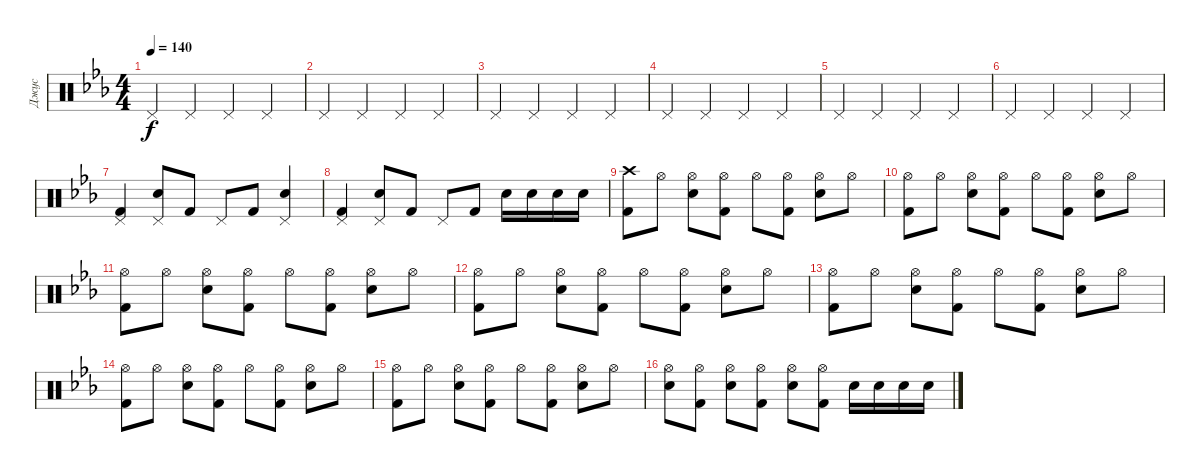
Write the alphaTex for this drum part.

\track ("Джус" "Джус") {instrument percussion}
\staff {score}
\articulation defaults
\ts (4 4)
\tempo 140
\clef neutral
\ks eb "Pedal Hi-Hat (hit)".4{dy f volume 8} "Pedal Hi-Hat (hit)".4 "Pedal Hi-Hat (hit)".4 "Pedal Hi-Hat (hit)".4
|
"Pedal Hi-Hat (hit)".4 "Pedal Hi-Hat (hit)".4 "Pedal Hi-Hat (hit)".4 "Pedal Hi-Hat (hit)".4 |
"Pedal Hi-Hat (hit)".4 "Pedal Hi-Hat (hit)".4 "Pedal Hi-Hat (hit)".4 "Pedal Hi-Hat (hit)".4 |
"Pedal Hi-Hat (hit)".4 "Pedal Hi-Hat (hit)".4 "Pedal Hi-Hat (hit)".4 "Pedal Hi-Hat (hit)".4 |
"Pedal Hi-Hat (hit)".4 "Pedal Hi-Hat (hit)".4 "Pedal Hi-Hat (hit)".4 "Pedal Hi-Hat (hit)".4 |
"Pedal Hi-Hat (hit)".4 "Pedal Hi-Hat (hit)".4 "Pedal Hi-Hat (hit)".4 "Pedal Hi-Hat (hit)".4 |
("Pedal Hi-Hat (hit)" "Kick (hit) 2").4 ("Pedal Hi-Hat (hit)" "Electric Snare (hit)").8 "Kick (hit) 2".8 "Pedal Hi-Hat (hit)".8 "Kick (hit) 2".8 ("Pedal Hi-Hat (hit)" "Electric Snare (hit)").4 |
("Pedal Hi-Hat (hit)" "Kick (hit) 2").4{volume 9} ("Pedal Hi-Hat (hit)" "Electric Snare (hit)").8{volume 11} "Kick (hit) 2".8{volume 12} "Pedal Hi-Hat (hit)".8{volume 13} "Kick (hit) 2".8{volume 14} "Electric Snare (hit)".16{volume 15} "Electric Snare (hit)".16 "Electric Snare (hit)".16 "Electric Snare (hit)".16 |
("Crash high (hit)" "Kick (hit) 2").8{volume 16} "Hi-Hat (open)".8 ("Hi-Hat (open)" "Electric Snare (hit)").8 ("Hi-Hat (open)" "Kick (hit) 2").8 "Hi-Hat (open)".8 ("Hi-Hat (open)" "Kick (hit) 2").8 ("Hi-Hat (open)" "Electric Snare (hit)").8 "Hi-Hat (open)".8 |
("Hi-Hat (open)" "Kick (hit) 2").8 "Hi-Hat (open)".8 ("Hi-Hat (open)" "Electric Snare (hit)").8 ("Hi-Hat (open)" "Kick (hit) 2").8 "Hi-Hat (open)".8 ("Hi-Hat (open)" "Kick (hit) 2").8 ("Hi-Hat (open)" "Electric Snare (hit)").8 "Hi-Hat (open)".8 |
("Hi-Hat (open)" "Kick (hit) 2").8 "Hi-Hat (open)".8 ("Hi-Hat (open)" "Electric Snare (hit)").8 ("Hi-Hat (open)" "Kick (hit) 2").8 "Hi-Hat (open)".8 ("Hi-Hat (open)" "Kick (hit) 2").8 ("Hi-Hat (open)" "Electric Snare (hit)").8 "Hi-Hat (open)".8 |
("Hi-Hat (open)" "Kick (hit) 2").8 "Hi-Hat (open)".8 ("Hi-Hat (open)" "Electric Snare (hit)").8 ("Hi-Hat (open)" "Kick (hit) 2").8 "Hi-Hat (open)".8 ("Hi-Hat (open)" "Kick (hit) 2").8 ("Hi-Hat (open)" "Electric Snare (hit)").8 "Hi-Hat (open)".8 |
("Hi-Hat (open)" "Kick (hit) 2").8 "Hi-Hat (open)".8 ("Hi-Hat (open)" "Electric Snare (hit)").8 ("Hi-Hat (open)" "Kick (hit) 2").8 "Hi-Hat (open)".8 ("Hi-Hat (open)" "Kick (hit) 2").8 ("Hi-Hat (open)" "Electric Snare (hit)").8 "Hi-Hat (open)".8 |
("Hi-Hat (open)" "Kick (hit) 2").8 "Hi-Hat (open)".8 ("Hi-Hat (open)" "Electric Snare (hit)").8 ("Hi-Hat (open)" "Kick (hit) 2").8 "Hi-Hat (open)".8 ("Hi-Hat (open)" "Kick (hit) 2").8 ("Hi-Hat (open)" "Electric Snare (hit)").8 "Hi-Hat (open)".8 |
("Hi-Hat (open)" "Kick (hit) 2").8 "Hi-Hat (open)".8 ("Hi-Hat (open)" "Electric Snare (hit)").8 ("Hi-Hat (open)" "Kick (hit) 2").8 "Hi-Hat (open)".8 ("Hi-Hat (open)" "Kick (hit) 2").8 ("Hi-Hat (open)" "Electric Snare (hit)").8 "Hi-Hat (open)".8 |
("Hi-Hat (open)" "Electric Snare (hit)").8 ("Hi-Hat (open)" "Kick (hit) 2").8 ("Hi-Hat (open)" "Electric Snare (hit)").8 ("Hi-Hat (open)" "Kick (hit) 2").8 ("Hi-Hat (open)" "Electric Snare (hit)").8 ("Hi-Hat (open)" "Kick (hit) 2").8 "Electric Snare (hit)".16 "Electric Snare (hit)".16 "Electric Snare (hit)".16 "Electric Snare (hit)".16
